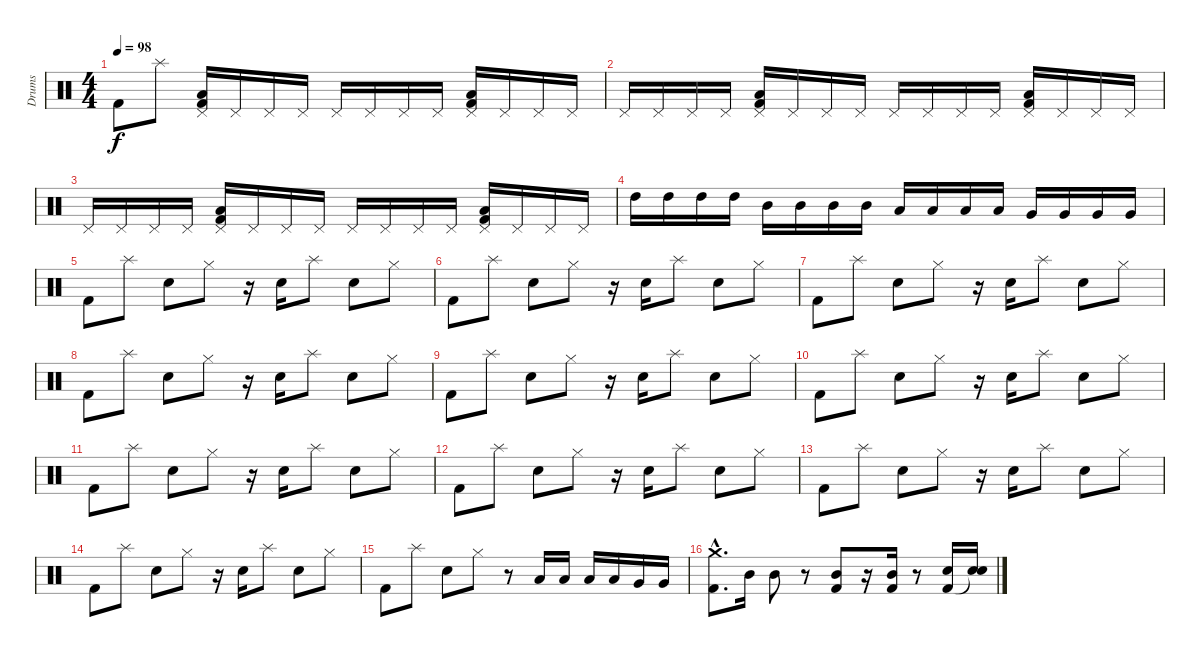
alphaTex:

\track ("Drums" "Drums") {instrument percussion}
\staff {score}
\articulation defaults
\ts (4 4)
\tempo 98
\clef neutral
\ks c "Kick (hit) 2".8{dy f} "Splash (hit)".8
("Pedal Hi-Hat (hit)" "Low Floor Tom (hit)" "Kick (hit) 2").16 "Pedal Hi-Hat (hit)".16 "Pedal Hi-Hat (hit)".16 "Pedal Hi-Hat (hit)".16 "Pedal Hi-Hat (hit)".16 "Pedal Hi-Hat (hit)".16 "Pedal Hi-Hat (hit)".16 "Pedal Hi-Hat (hit)".16 ("Pedal Hi-Hat (hit)" "Low Floor Tom (hit)" "Kick (hit) 2").16 "Pedal Hi-Hat (hit)".16 "Pedal Hi-Hat (hit)".16 "Pedal Hi-Hat (hit)".16 |
"Pedal Hi-Hat (hit)".16 "Pedal Hi-Hat (hit)".16 "Pedal Hi-Hat (hit)".16 "Pedal Hi-Hat (hit)".16 ("Pedal Hi-Hat (hit)" "Low Floor Tom (hit)" "Kick (hit) 2").16 "Pedal Hi-Hat (hit)".16 "Pedal Hi-Hat (hit)".16 "Pedal Hi-Hat (hit)".16 "Pedal Hi-Hat (hit)".16 "Pedal Hi-Hat (hit)".16 "Pedal Hi-Hat (hit)".16 "Pedal Hi-Hat (hit)".16 ("Pedal Hi-Hat (hit)" "Low Floor Tom (hit)" "Kick (hit) 2").16 "Pedal Hi-Hat (hit)".16 "Pedal Hi-Hat (hit)".16 "Pedal Hi-Hat (hit)".16 |
"Pedal Hi-Hat (hit)".16 "Pedal Hi-Hat (hit)".16 "Pedal Hi-Hat (hit)".16 "Pedal Hi-Hat (hit)".16 ("Pedal Hi-Hat (hit)" "Low Floor Tom (hit)" "Kick (hit) 2").16 "Pedal Hi-Hat (hit)".16 "Pedal Hi-Hat (hit)".16 "Pedal Hi-Hat (hit)".16 "Pedal Hi-Hat (hit)".16 "Pedal Hi-Hat (hit)".16 "Pedal Hi-Hat (hit)".16 "Pedal Hi-Hat (hit)".16 ("Pedal Hi-Hat (hit)" "Low Floor Tom (hit)" "Kick (hit) 2").16 "Pedal Hi-Hat (hit)".16 "Pedal Hi-Hat (hit)".16 "Pedal Hi-Hat (hit)".16 |
"High Tom (hit)".16 "High Tom (hit)".16 "High Tom (hit)".16 "High Tom (hit)".16 "Mid Tom (hit)".16 "Mid Tom (hit)".16 "Mid Tom (hit)".16 "Mid Tom (hit)".16 "Low Tom (hit)".16 "Low Tom (hit)".16 "Low Tom (hit)".16 "Low Tom (hit)".16 "Very Low Tom (hit)".16 "Very Low Tom (hit)".16 "Very Low Tom (hit)".16 "Very Low Tom (hit)".16 |
"Kick (hit) 2".8 "Splash (hit)".8 "Snare (hit) 2".8 "Hi-Hat (closed)".8 r.16 "Snare (hit) 2".16 "Splash (hit)".8 "Snare (hit) 2".8 "Hi-Hat (closed)".8 |
"Kick (hit) 2".8 "Splash (hit)".8 "Snare (hit) 2".8 "Hi-Hat (closed)".8 r.16 "Snare (hit) 2".16 "Splash (hit)".8 "Snare (hit) 2".8 "Hi-Hat (closed)".8 |
"Kick (hit) 2".8 "Splash (hit)".8 "Snare (hit) 2".8 "Hi-Hat (closed)".8 r.16 "Snare (hit) 2".16 "Splash (hit)".8 "Snare (hit) 2".8 "Hi-Hat (closed)".8 |
"Kick (hit) 2".8 "Splash (hit)".8 "Snare (hit) 2".8 "Hi-Hat (closed)".8 r.16 "Snare (hit) 2".16 "Splash (hit)".8 "Snare (hit) 2".8 "Hi-Hat (closed)".8 |
"Kick (hit) 2".8 "Splash (hit)".8 "Snare (hit) 2".8 "Hi-Hat (closed)".8 r.16 "Snare (hit) 2".16 "Splash (hit)".8 "Snare (hit) 2".8 "Hi-Hat (closed)".8 |
"Kick (hit) 2".8 "Splash (hit)".8 "Snare (hit) 2".8 "Hi-Hat (closed)".8 r.16 "Snare (hit) 2".16 "Splash (hit)".8 "Snare (hit) 2".8 "Hi-Hat (closed)".8 |
"Kick (hit) 2".8 "Splash (hit)".8 "Snare (hit) 2".8 "Hi-Hat (closed)".8 r.16 "Snare (hit) 2".16 "Splash (hit)".8 "Snare (hit) 2".8 "Hi-Hat (closed)".8 |
"Kick (hit) 2".8 "Splash (hit)".8 "Snare (hit) 2".8 "Hi-Hat (closed)".8 r.16 "Snare (hit) 2".16 "Splash (hit)".8 "Snare (hit) 2".8 "Hi-Hat (closed)".8 |
"Kick (hit) 2".8 "Splash (hit)".8 "Snare (hit) 2".8 "Hi-Hat (closed)".8 r.16 "Snare (hit) 2".16 "Splash (hit)".8 "Snare (hit) 2".8 "Hi-Hat (closed)".8 |
"Kick (hit) 2".8 "Splash (hit)".8 "Snare (hit) 2".8 "Hi-Hat (closed)".8 r.16 "Snare (hit) 2".16 "Splash (hit)".8 "Snare (hit) 2".8 "Hi-Hat (closed)".8 |
"Kick (hit) 2".8 "Splash (hit)".8 "Snare (hit) 2".8 "Hi-Hat (closed)".8 r.8 "Low Floor Tom (hit)".16 "Low Floor Tom (hit)".16 "Low Tom (hit)".16 "Low Tom (hit)".16 "Very Low Tom (hit)".16 "Very Low Tom (hit)".16 |
("Crash medium (hit)"{hac} "Kick (hit) 2"{hac}).8{d} "Mid Tom (hit)".16 "Mid Tom (hit)".8 r.8 ("Mid Tom (hit)" "Kick (hit) 2").8 r.16 ("Mid Tom (hit)" "Kick (hit) 2").16 r.8 ("Electric Snare (hit)" "Kick (hit) 2").16 ("Electric Snare (hit)" "Snare (hit)"{t}).16
